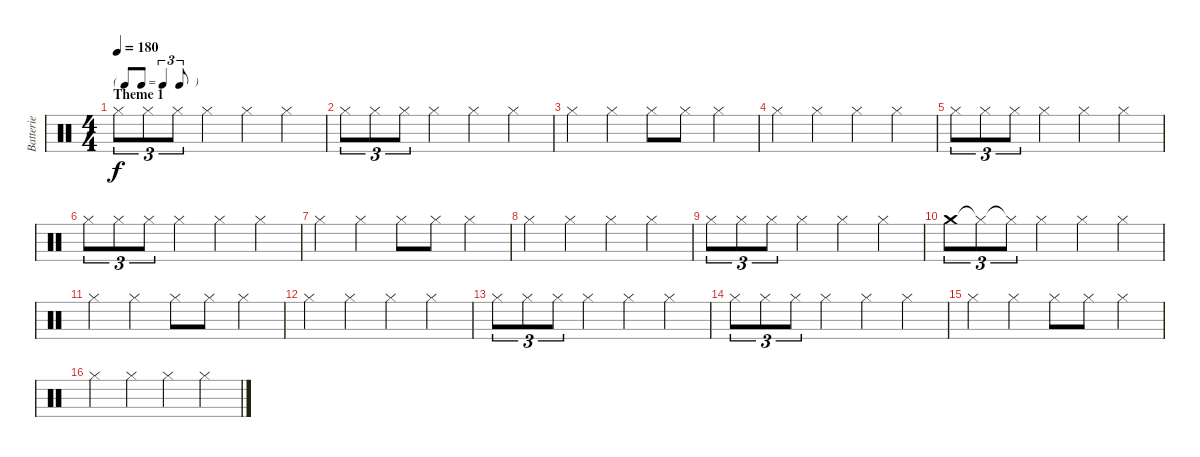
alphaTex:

\track ("Batterie" "Batterie") {instrument percussion}
\staff {score}
\articulation defaults
\ts (4 4)
\tf triplet8th
\section ("" "Theme 1")
\tempo 180
\clef neutral
\ks c "Hi-Hat (closed)".8{tu (3 2) dy f} "Hi-Hat (closed)".8{tu (3 2)} "Hi-Hat (closed)".8{tu (3 2)} "Hi-Hat (closed)".4 "Hi-Hat (closed)".4 "Hi-Hat (closed)".4
|
"Hi-Hat (closed)".8{tu (3 2)} "Hi-Hat (closed)".8{tu (3 2)} "Hi-Hat (closed)".8{tu (3 2)} "Hi-Hat (closed)".4 "Hi-Hat (closed)".4 "Hi-Hat (closed)".4 |
"Hi-Hat (closed)".4 "Hi-Hat (closed)".4 "Hi-Hat (closed)".8 "Hi-Hat (closed)".8 "Hi-Hat (closed)".4 |
"Hi-Hat (closed)".4 "Hi-Hat (closed)".4 "Hi-Hat (closed)".4 "Hi-Hat (closed)".4 |
"Hi-Hat (closed)".8{tu (3 2)} "Hi-Hat (closed)".8{tu (3 2)} "Hi-Hat (closed)".8{tu (3 2)} "Hi-Hat (closed)".4 "Hi-Hat (closed)".4 "Hi-Hat (closed)".4 |
"Hi-Hat (closed)".8{tu (3 2)} "Hi-Hat (closed)".8{tu (3 2)} "Hi-Hat (closed)".8{tu (3 2)} "Hi-Hat (closed)".4 "Hi-Hat (closed)".4 "Hi-Hat (closed)".4 |
"Hi-Hat (closed)".4 "Hi-Hat (closed)".4 "Hi-Hat (closed)".8 "Hi-Hat (closed)".8 "Hi-Hat (closed)".4 |
"Hi-Hat (closed)".4 "Hi-Hat (closed)".4 "Hi-Hat (closed)".4 "Hi-Hat (closed)".4 |
"Hi-Hat (closed)".8{tu (3 2)} "Hi-Hat (closed)".8{tu (3 2)} "Hi-Hat (closed)".8{tu (3 2)} "Hi-Hat (closed)".4 "Hi-Hat (closed)".4 "Hi-Hat (closed)".4 |
"Crash medium (hit)".8{tu (3 2)} "Hi-Hat (closed)"{t}.8{tu (3 2)} "Hi-Hat (closed)"{t}.8{tu (3 2)} "Hi-Hat (closed)".4 "Hi-Hat (closed)".4 "Hi-Hat (closed)".4 |
"Hi-Hat (closed)".4 "Hi-Hat (closed)".4 "Hi-Hat (closed)".8 "Hi-Hat (closed)".8 "Hi-Hat (closed)".4 |
"Hi-Hat (closed)".4 "Hi-Hat (closed)".4 "Hi-Hat (closed)".4 "Hi-Hat (closed)".4 |
"Hi-Hat (closed)".8{tu (3 2)} "Hi-Hat (closed)".8{tu (3 2)} "Hi-Hat (closed)".8{tu (3 2)} "Hi-Hat (closed)".4 "Hi-Hat (closed)".4 "Hi-Hat (closed)".4 |
"Hi-Hat (closed)".8{tu (3 2)} "Hi-Hat (closed)".8{tu (3 2)} "Hi-Hat (closed)".8{tu (3 2)} "Hi-Hat (closed)".4 "Hi-Hat (closed)".4 "Hi-Hat (closed)".4 |
"Hi-Hat (closed)".4 "Hi-Hat (closed)".4 "Hi-Hat (closed)".8 "Hi-Hat (closed)".8 "Hi-Hat (closed)".4 |
"Hi-Hat (closed)".4 "Hi-Hat (closed)".4 "Hi-Hat (closed)".4 "Hi-Hat (closed)".4
